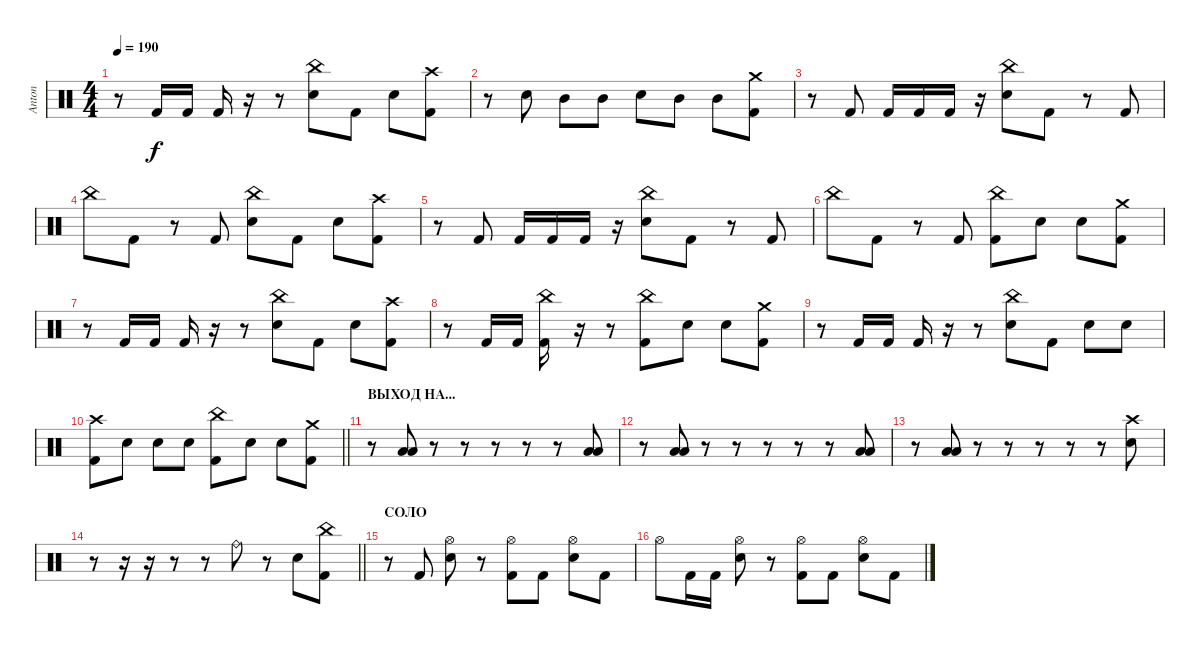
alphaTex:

\track ("Anton" "Anton") {instrument percussion}
\staff {score}
\articulation defaults
\ts (4 4)
\tempo 190
\clef neutral
\ks c
r.8{dy f} "Kick (hit) 2".16 "Kick (hit) 2".16 "Kick (hit) 2".16 r.16 r.8 ("China (hit)" "Electric Snare (hit)").8 "Kick (hit) 2".8 "Electric Snare (hit)".8 ("Crash high (hit)" "Kick (hit) 2").8 |
r.8 "Electric Snare (hit)".8 "Mid Tom (hit)".8 "Mid Tom (hit)".8 "Electric Snare (hit)".8 "Mid Tom (hit)".8 "Mid Tom (hit)".8 ("Crash medium (hit)" "Kick (hit) 2").8 |
r.8 "Kick (hit) 2".8 "Kick (hit) 2".16 "Kick (hit) 2".16 "Kick (hit) 2".16 r.16 ("China (hit)" "Electric Snare (hit)").8 "Kick (hit) 2".8 r.8 "Kick (hit) 2".8 |
"China (hit)".8 "Kick (hit) 2".8 r.8 "Kick (hit) 2".8 ("China (hit)" "Electric Snare (hit)").8 "Kick (hit) 2".8 "Electric Snare (hit)".8 ("Crash high (hit)" "Kick (hit) 2").8 |
r.8 "Kick (hit) 2".8 "Kick (hit) 2".16 "Kick (hit) 2".16 "Kick (hit) 2".16 r.16 ("China (hit)" "Electric Snare (hit)").8 "Kick (hit) 2".8 r.8 "Kick (hit) 2".8 |
"China (hit)".8 "Kick (hit) 2".8 r.8 "Kick (hit) 2".8 ("China (hit)" "Kick (hit) 2").8 "Electric Snare (hit)".8 "Electric Snare (hit)".8 ("Crash medium (hit)" "Kick (hit) 2").8 |
r.8 "Kick (hit) 2".16 "Kick (hit) 2".16 "Kick (hit) 2".16 r.16 r.8 ("China (hit)" "Electric Snare (hit)").8 "Kick (hit) 2".8 "Electric Snare (hit)".8 ("Crash high (hit)" "Kick (hit) 2").8 |
r.8 "Kick (hit) 2".16 "Kick (hit) 2".16 ("China (hit)" "Kick (hit) 2").16 r.16 r.8 ("China (hit)" "Kick (hit) 2").8 "Electric Snare (hit)".8 "Electric Snare (hit)".8 ("Crash medium (hit)" "Kick (hit) 2").8 |
r.8 "Kick (hit) 2".16 "Kick (hit) 2".16 "Kick (hit) 2".16 r.16 r.8 ("China (hit)" "Electric Snare (hit)").8 "Kick (hit) 2".8 "Electric Snare (hit)".8 "Electric Snare (hit)".8 |
\barLineRight lightlight
("Crash high (hit)" "Kick (hit) 2").8 "Electric Snare (hit)".8 "Electric Snare (hit)".8 "Electric Snare (hit)".8 ("China (hit)" "Kick (hit) 2").8 "Electric Snare (hit)".8 "Electric Snare (hit)".8 ("Crash medium (hit)" "Kick (hit) 2").8 |
\section ("" "ВЫХОД НА...")
r.8 ("Low Tom (hit)" "Low Floor Tom (hit)").8 r.8 r.8 r.8 r.8 r.8 ("Low Tom (hit)" "Low Floor Tom (hit)").8 |
r.8 ("Low Tom (hit)" "Low Floor Tom (hit)").8 r.8 r.8 r.8 r.8 r.8 ("Low Tom (hit)" "Low Floor Tom (hit)").8 |
r.8 ("Low Tom (hit)" "Low Floor Tom (hit)").8 r.8 r.8 r.8 r.8 r.8 ("Crash high (hit)" "Electric Snare (hit)").8 |
\barLineRight lightlight
r.8 r.16 r.16 r.8 r.8 "Ride (bell)".8 r.8 "Electric Snare (hit)".8 ("China (hit)" "Kick (hit) 2").8 |
\section ("" "СОЛО")
r.8 "Kick (hit) 2".8 ("Hi-Hat (open)" "Electric Snare (hit)").8 r.8 ("Hi-Hat (open)" "Kick (hit) 2").8 "Kick (hit) 2".8 ("Hi-Hat (open)" "Electric Snare (hit)").8 "Kick (hit) 2".8 |
"Hi-Hat (open)".8 "Kick (hit) 2".16 "Kick (hit) 2".16 ("Hi-Hat (open)" "Electric Snare (hit)").8 r.8 ("Hi-Hat (open)" "Kick (hit) 2").8 "Kick (hit) 2".8 ("Hi-Hat (open)" "Electric Snare (hit)").8 "Kick (hit) 2".8
